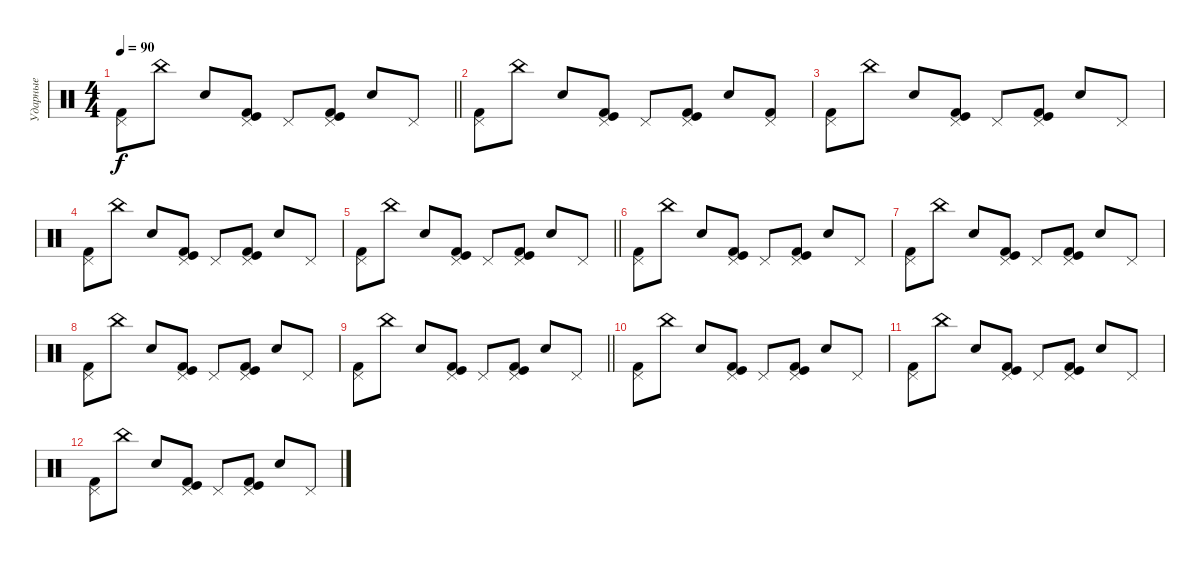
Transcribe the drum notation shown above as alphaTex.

\track ("Ударные" "Ударные") {instrument percussion}
\staff {score}
\articulation defaults
\ts (4 4)
\tempo 90
\clef neutral
\barLineRight lightlight
\ks c
("Pedal Hi-Hat (hit)" "Kick (hit) 2").8{dy f} "China (hit)".8 "Snare (hit) 2".8 ("Pedal Hi-Hat (hit)" "Kick (hit) 2" "Kick (hit)").8 "Pedal Hi-Hat (hit)".8 ("Pedal Hi-Hat (hit)" "Kick (hit) 2" "Kick (hit)").8 "Snare (hit) 2".8 "Pedal Hi-Hat (hit)".8 |
("Pedal Hi-Hat (hit)" "Kick (hit) 2").8 "China (hit)".8 "Snare (hit) 2".8 ("Pedal Hi-Hat (hit)" "Kick (hit) 2" "Kick (hit)").8 "Pedal Hi-Hat (hit)".8 ("Pedal Hi-Hat (hit)" "Kick (hit) 2" "Kick (hit)").8 "Snare (hit) 2".8 ("Pedal Hi-Hat (hit)" "Kick (hit) 2").8 |
("Pedal Hi-Hat (hit)" "Kick (hit) 2").8 "China (hit)".8 "Snare (hit) 2".8 ("Pedal Hi-Hat (hit)" "Kick (hit) 2" "Kick (hit)").8 "Pedal Hi-Hat (hit)".8 ("Pedal Hi-Hat (hit)" "Kick (hit) 2" "Kick (hit)").8 "Snare (hit) 2".8 "Pedal Hi-Hat (hit)".8 |
("Pedal Hi-Hat (hit)" "Kick (hit) 2").8 "China (hit)".8 "Snare (hit) 2".8 ("Pedal Hi-Hat (hit)" "Kick (hit) 2" "Kick (hit)").8 "Pedal Hi-Hat (hit)".8 ("Pedal Hi-Hat (hit)" "Kick (hit) 2" "Kick (hit)").8 "Snare (hit) 2".8 "Pedal Hi-Hat (hit)".8 |
\barLineRight lightlight
("Pedal Hi-Hat (hit)" "Kick (hit) 2").8 "China (hit)".8 "Snare (hit) 2".8 ("Pedal Hi-Hat (hit)" "Kick (hit) 2" "Kick (hit)").8 "Pedal Hi-Hat (hit)".8 ("Pedal Hi-Hat (hit)" "Kick (hit) 2" "Kick (hit)").8 "Snare (hit) 2".8 "Pedal Hi-Hat (hit)".8 |
("Pedal Hi-Hat (hit)" "Kick (hit) 2").8 "China (hit)".8 "Snare (hit) 2".8 ("Pedal Hi-Hat (hit)" "Kick (hit) 2" "Kick (hit)").8 "Pedal Hi-Hat (hit)".8 ("Pedal Hi-Hat (hit)" "Kick (hit) 2" "Kick (hit)").8 "Snare (hit) 2".8 "Pedal Hi-Hat (hit)".8 |
("Pedal Hi-Hat (hit)" "Kick (hit) 2").8 "China (hit)".8 "Snare (hit) 2".8 ("Pedal Hi-Hat (hit)" "Kick (hit) 2" "Kick (hit)").8 "Pedal Hi-Hat (hit)".8 ("Pedal Hi-Hat (hit)" "Kick (hit) 2" "Kick (hit)").8 "Snare (hit) 2".8 "Pedal Hi-Hat (hit)".8 |
("Pedal Hi-Hat (hit)" "Kick (hit) 2").8 "China (hit)".8 "Snare (hit) 2".8 ("Pedal Hi-Hat (hit)" "Kick (hit) 2" "Kick (hit)").8 "Pedal Hi-Hat (hit)".8 ("Pedal Hi-Hat (hit)" "Kick (hit) 2" "Kick (hit)").8 "Snare (hit) 2".8 "Pedal Hi-Hat (hit)".8 |
\barLineRight lightlight
("Pedal Hi-Hat (hit)" "Kick (hit) 2").8 "China (hit)".8 "Snare (hit) 2".8 ("Pedal Hi-Hat (hit)" "Kick (hit) 2" "Kick (hit)").8 "Pedal Hi-Hat (hit)".8 ("Pedal Hi-Hat (hit)" "Kick (hit) 2" "Kick (hit)").8 "Snare (hit) 2".8 "Pedal Hi-Hat (hit)".8 |
("Pedal Hi-Hat (hit)" "Kick (hit) 2").8 "China (hit)".8 "Snare (hit) 2".8 ("Pedal Hi-Hat (hit)" "Kick (hit) 2" "Kick (hit)").8 "Pedal Hi-Hat (hit)".8 ("Pedal Hi-Hat (hit)" "Kick (hit) 2" "Kick (hit)").8 "Snare (hit) 2".8 "Pedal Hi-Hat (hit)".8 |
("Pedal Hi-Hat (hit)" "Kick (hit) 2").8 "China (hit)".8 "Snare (hit) 2".8 ("Pedal Hi-Hat (hit)" "Kick (hit) 2" "Kick (hit)").8 "Pedal Hi-Hat (hit)".8 ("Pedal Hi-Hat (hit)" "Kick (hit) 2" "Kick (hit)").8 "Snare (hit) 2".8 "Pedal Hi-Hat (hit)".8 |
("Pedal Hi-Hat (hit)" "Kick (hit) 2").8 "China (hit)".8 "Snare (hit) 2".8 ("Pedal Hi-Hat (hit)" "Kick (hit) 2" "Kick (hit)").8 "Pedal Hi-Hat (hit)".8 ("Pedal Hi-Hat (hit)" "Kick (hit) 2" "Kick (hit)").8 "Snare (hit) 2".8 "Pedal Hi-Hat (hit)".8
